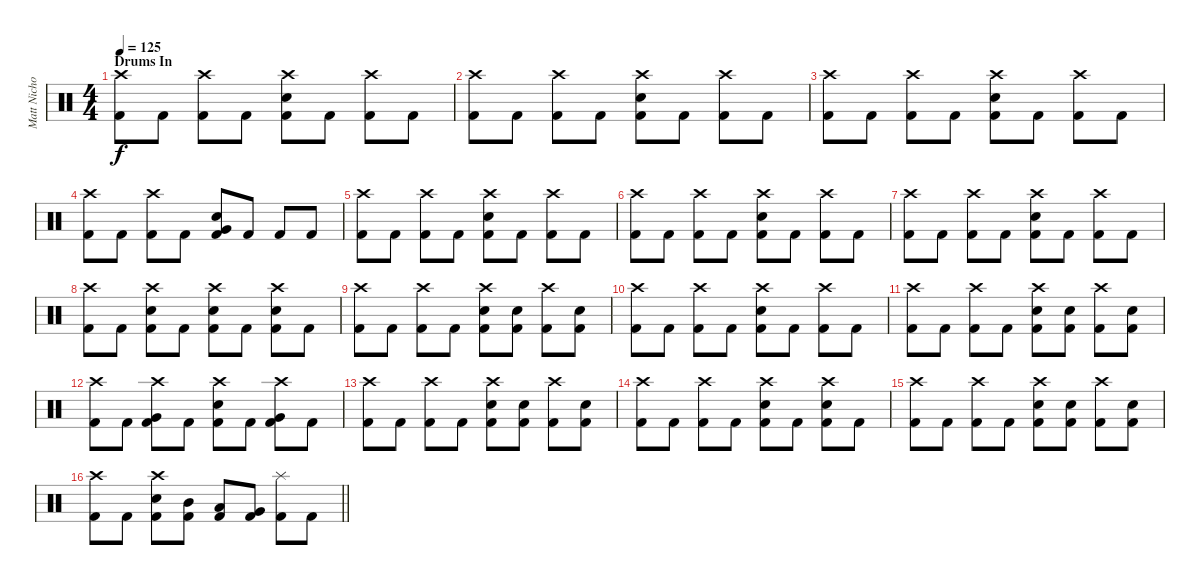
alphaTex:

\track ("Matt Nicholls" "Matt Nicho") {instrument percussion}
\staff {score}
\articulation defaults
\ts (4 4)
\section ("" "Drums In")
\tempo 125
\clef neutral
\ks c
("Crash high (hit)" "Kick (hit) 2").8{dy f} "Kick (hit) 2".8 ("Crash high (hit)" "Kick (hit) 2").8 "Kick (hit) 2".8 ("Crash high (hit)" "Electric Snare (hit)" "Kick (hit) 2").8 "Kick (hit) 2".8 ("Crash high (hit)" "Kick (hit) 2").8 "Kick (hit) 2".8 |
("Crash high (hit)" "Kick (hit) 2").8 "Kick (hit) 2".8 ("Crash high (hit)" "Kick (hit) 2").8 "Kick (hit) 2".8 ("Crash high (hit)" "Electric Snare (hit)" "Kick (hit) 2").8 "Kick (hit) 2".8 ("Crash high (hit)" "Kick (hit) 2").8 "Kick (hit) 2".8 |
("Crash high (hit)" "Kick (hit) 2").8 "Kick (hit) 2".8 ("Crash high (hit)" "Kick (hit) 2").8 "Kick (hit) 2".8 ("Crash high (hit)" "Electric Snare (hit)" "Kick (hit) 2").8 "Kick (hit) 2".8 ("Crash high (hit)" "Kick (hit) 2").8 "Kick (hit) 2".8 |
("Crash high (hit)" "Kick (hit) 2").8 "Kick (hit) 2".8 ("Crash high (hit)" "Kick (hit) 2").8 "Kick (hit) 2".8 ("Very Low Tom (hit)" "Electric Snare (hit)" "Kick (hit) 2").8 "Kick (hit) 2".8 "Kick (hit) 2".8 "Kick (hit) 2".8 |
("Crash high (hit)" "Kick (hit) 2").8 "Kick (hit) 2".8 ("Crash high (hit)" "Kick (hit) 2").8 "Kick (hit) 2".8 ("Crash high (hit)" "Electric Snare (hit)" "Kick (hit) 2").8 "Kick (hit) 2".8 ("Crash high (hit)" "Kick (hit) 2").8 "Kick (hit) 2".8 |
("Crash high (hit)" "Kick (hit) 2").8 "Kick (hit) 2".8 ("Crash high (hit)" "Kick (hit) 2").8 "Kick (hit) 2".8 ("Crash high (hit)" "Electric Snare (hit)" "Kick (hit) 2").8 "Kick (hit) 2".8 ("Crash high (hit)" "Kick (hit) 2").8 "Kick (hit) 2".8 |
("Crash high (hit)" "Kick (hit) 2").8 "Kick (hit) 2".8 ("Crash high (hit)" "Kick (hit) 2").8 "Kick (hit) 2".8 ("Crash high (hit)" "Electric Snare (hit)" "Kick (hit) 2").8 "Kick (hit) 2".8 ("Crash high (hit)" "Kick (hit) 2").8 "Kick (hit) 2".8 |
("Crash high (hit)" "Kick (hit) 2").8 "Kick (hit) 2".8 ("Crash high (hit)" "Electric Snare (hit)" "Kick (hit) 2").8 "Kick (hit) 2".8 ("Crash high (hit)" "Electric Snare (hit)" "Kick (hit) 2").8 "Kick (hit) 2".8 ("Crash high (hit)" "Electric Snare (hit)" "Kick (hit) 2").8 "Kick (hit) 2".8 |
("Crash high (hit)" "Kick (hit) 2").8 "Kick (hit) 2".8 ("Crash high (hit)" "Kick (hit) 2").8 "Kick (hit) 2".8 ("Crash high (hit)" "Electric Snare (hit)" "Kick (hit) 2").8 ("Electric Snare (hit)" "Kick (hit) 2").8 ("Crash high (hit)" "Kick (hit) 2").8 ("Electric Snare (hit)" "Kick (hit) 2").8 |
("Crash high (hit)" "Kick (hit) 2").8 "Kick (hit) 2".8 ("Crash high (hit)" "Kick (hit) 2").8 "Kick (hit) 2".8 ("Crash high (hit)" "Electric Snare (hit)" "Kick (hit) 2").8 "Kick (hit) 2".8 ("Crash high (hit)" "Kick (hit) 2").8 "Kick (hit) 2".8 |
("Crash high (hit)" "Kick (hit) 2").8 "Kick (hit) 2".8 ("Crash high (hit)" "Kick (hit) 2").8 "Kick (hit) 2".8 ("Crash high (hit)" "Electric Snare (hit)" "Kick (hit) 2").8 ("Electric Snare (hit)" "Kick (hit) 2").8 ("Crash high (hit)" "Kick (hit) 2").8 ("Electric Snare (hit)" "Kick (hit) 2").8 |
("Crash high (hit)" "Kick (hit) 2").8 "Kick (hit) 2".8 ("Crash high (hit)" "Very Low Tom (hit)" "Kick (hit) 2").8 "Kick (hit) 2".8 ("Crash high (hit)" "Electric Snare (hit)" "Kick (hit) 2").8 "Kick (hit) 2".8 ("Crash high (hit)" "Very Low Tom (hit)" "Kick (hit) 2").8 "Kick (hit) 2".8 |
("Crash high (hit)" "Kick (hit) 2").8 "Kick (hit) 2".8 ("Crash high (hit)" "Kick (hit) 2").8 "Kick (hit) 2".8 ("Crash high (hit)" "Electric Snare (hit)" "Kick (hit) 2").8 ("Electric Snare (hit)" "Kick (hit) 2").8 ("Crash high (hit)" "Kick (hit) 2").8 ("Electric Snare (hit)" "Kick (hit) 2").8 |
("Crash high (hit)" "Kick (hit) 2").8 "Kick (hit) 2".8 ("Crash high (hit)" "Kick (hit) 2").8 "Kick (hit) 2".8 ("Crash high (hit)" "Electric Snare (hit)" "Kick (hit) 2").8 "Kick (hit) 2".8 ("Crash high (hit)" "Electric Snare (hit)" "Kick (hit) 2").8 "Kick (hit) 2".8 |
("Crash high (hit)" "Kick (hit) 2").8 "Kick (hit) 2".8 ("Crash high (hit)" "Kick (hit) 2").8 "Kick (hit) 2".8 ("Crash high (hit)" "Electric Snare (hit)" "Kick (hit) 2").8 ("Electric Snare (hit)" "Kick (hit) 2").8 ("Crash high (hit)" "Kick (hit) 2").8 ("Electric Snare (hit)" "Kick (hit) 2").8 |
\barLineRight lightlight
("Crash high (hit)" "Kick (hit) 2").8 "Kick (hit) 2".8 ("Crash high (hit)" "Electric Snare (hit)" "Kick (hit) 2").8 ("Mid Tom (hit)" "Kick (hit) 2").8 ("Low Tom (hit)" "Kick (hit) 2").8 ("Very Low Tom (hit)" "Kick (hit) 2").8 ("Splash (hit)" "Kick (hit) 2").8 "Kick (hit) 2".8
